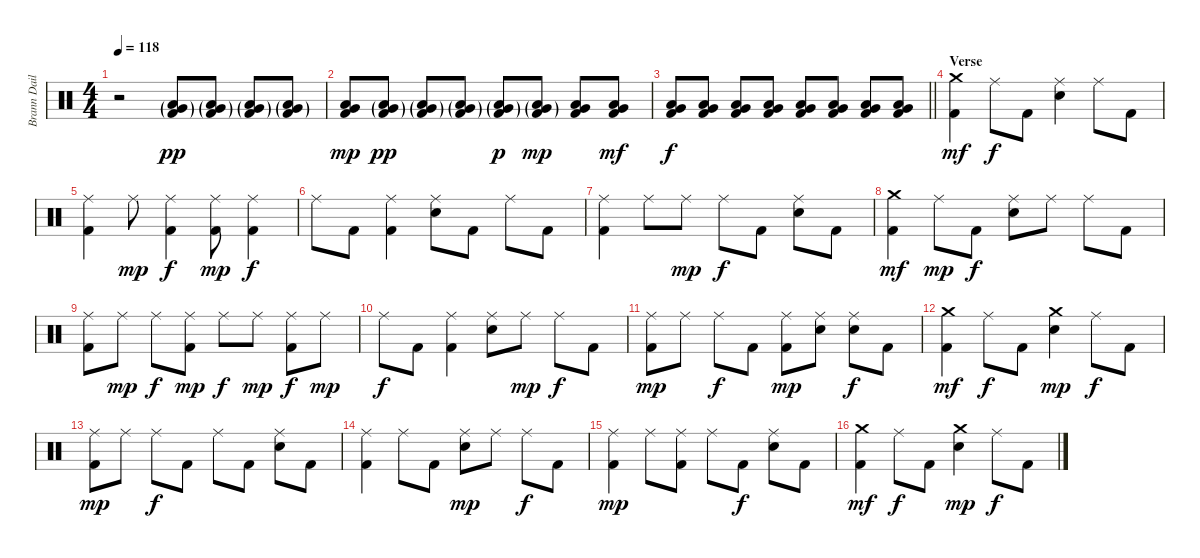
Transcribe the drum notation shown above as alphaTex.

\track ("Brann Dailor - Drums" "Brann Dail") {instrument percussion}
\staff {score}
\articulation defaults
\ts (4 4)
\tempo 118
\clef neutral
\ks c
r.2{dy mp} ("Low Tom (hit)"{g} "Very Low Tom (hit)"{g} "Kick (hit) 2"{g}).8{dy pp} ("Low Tom (hit)"{g} "Very Low Tom (hit)"{g} "Kick (hit) 2"{g}).8 ("Low Tom (hit)"{g} "Very Low Tom (hit)"{g} "Kick (hit) 2"{g}).8 ("Low Tom (hit)"{g} "Very Low Tom (hit)"{g} "Kick (hit) 2"{g}).8 |
("Low Tom (hit)" "Very Low Tom (hit)" "Kick (hit) 2").8{dy mp} ("Low Tom (hit)"{g} "Very Low Tom (hit)"{g} "Kick (hit) 2"{g}).8{dy pp} ("Low Tom (hit)"{g} "Very Low Tom (hit)"{g} "Kick (hit) 2"{g}).8 ("Low Tom (hit)"{g} "Very Low Tom (hit)"{g} "Kick (hit) 2"{g}).8 ("Low Tom (hit)"{g} "Very Low Tom (hit)"{g} "Kick (hit) 2"{g}).8{dy p} ("Low Tom (hit)"{g} "Very Low Tom (hit)"{g} "Kick (hit) 2"{g}).8{dy mp} ("Low Tom (hit)" "Very Low Tom (hit)" "Kick (hit) 2").8 ("Low Tom (hit)" "Very Low Tom (hit)" "Kick (hit) 2").8{dy mf} |
\barLineRight lightlight
("Low Tom (hit)" "Very Low Tom (hit)" "Kick (hit) 2").8{dy f} ("Low Tom (hit)" "Very Low Tom (hit)" "Kick (hit) 2").8 ("Low Tom (hit)" "Very Low Tom (hit)" "Kick (hit) 2").8 ("Low Tom (hit)" "Very Low Tom (hit)" "Kick (hit) 2").8 ("Low Tom (hit)" "Very Low Tom (hit)" "Kick (hit) 2").8 ("Low Tom (hit)" "Very Low Tom (hit)" "Kick (hit) 2").8 ("Low Tom (hit)" "Very Low Tom (hit)" "Kick (hit) 2").8 ("Low Tom (hit)" "Very Low Tom (hit)" "Kick (hit) 2").8 |
\section ("" "Verse")
("Crash medium (hit)" "Kick (hit) 2").4{dy mf} "Ride (middle)".8{dy f} "Kick (hit) 2".8 ("Ride (middle)" "Electric Snare (hit)").4 "Ride (middle)".8 "Kick (hit) 2".8 |
("Ride (middle)" "Kick (hit) 2").4 "Ride (middle)".8{dy mp} ("Ride (middle)" "Kick (hit) 2").4{dy f} ("Ride (middle)" "Kick (hit) 2").8{dy mp} ("Ride (middle)" "Kick (hit) 2").4{dy f} |
"Ride (middle)".8 "Kick (hit) 2".8 ("Ride (middle)" "Kick (hit) 2").4 ("Ride (middle)" "Electric Snare (hit)").8 "Kick (hit) 2".8 "Ride (middle)".8 "Kick (hit) 2".8 |
("Ride (middle)" "Kick (hit) 2").4 "Ride (middle)".8 "Ride (middle)".8{dy mp} "Ride (middle)".8{dy f} "Kick (hit) 2".8 ("Ride (middle)" "Electric Snare (hit)").8 "Kick (hit) 2".8 |
("Crash medium (hit)" "Kick (hit) 2").4{dy mf} "Ride (middle)".8{dy mp} "Kick (hit) 2".8{dy f} ("Ride (middle)" "Electric Snare (hit)").8 "Ride (middle)".8 "Ride (middle)".8 "Kick (hit) 2".8 |
("Ride (middle)" "Kick (hit) 2").8 "Ride (middle)".8{dy mp} "Ride (middle)".8{dy f} ("Ride (middle)" "Kick (hit) 2").8{dy mp} "Ride (middle)".8{dy f} "Ride (middle)".8{dy mp} ("Ride (middle)" "Kick (hit) 2").8{dy f} "Ride (middle)".8{dy mp} |
"Ride (middle)".8{dy f} "Kick (hit) 2".8 ("Ride (middle)" "Kick (hit) 2").4 ("Ride (middle)" "Electric Snare (hit)").8 "Ride (middle)".8{dy mp} "Ride (middle)".8{dy f} "Kick (hit) 2".8 |
("Ride (middle)" "Kick (hit) 2").8{dy mp} "Ride (middle)".8 "Ride (middle)".8{dy f} "Kick (hit) 2".8 ("Ride (middle)" "Kick (hit) 2").8{dy mp} ("Ride (middle)" "Electric Snare (hit)").8 ("Ride (middle)" "Electric Snare (hit)").8{dy f} "Kick (hit) 2".8 |
("Crash medium (hit)" "Kick (hit) 2").4{dy mf} "Ride (middle)".8{dy f} "Kick (hit) 2".8 ("Crash medium (hit)" "Electric Snare (hit)").4{dy mp} "Ride (middle)".8{dy f} "Kick (hit) 2".8 |
("Ride (middle)" "Kick (hit) 2").8{dy mp} "Ride (middle)".8 "Ride (middle)".8{dy f} "Kick (hit) 2".8 "Ride (middle)".8 "Kick (hit) 2".8 ("Ride (middle)" "Electric Snare (hit)").8 "Kick (hit) 2".8 |
("Ride (middle)" "Kick (hit) 2").4 "Ride (middle)".8 "Kick (hit) 2".8 ("Ride (middle)" "Electric Snare (hit)").8{dy mp} "Ride (middle)".8 "Ride (middle)".8{dy f} "Kick (hit) 2".8 |
("Ride (middle)" "Kick (hit) 2").4{dy mp} "Ride (middle)".8 ("Ride (middle)" "Kick (hit) 2").8 "Ride (middle)".8 "Kick (hit) 2".8{dy f} ("Ride (middle)" "Electric Snare (hit)").8 "Kick (hit) 2".8 |
("Crash medium (hit)" "Kick (hit) 2").4{dy mf} "Ride (middle)".8{dy f} "Kick (hit) 2".8 ("Crash medium (hit)" "Electric Snare (hit)").4{dy mp} "Ride (middle)".8{dy f} "Kick (hit) 2".8
